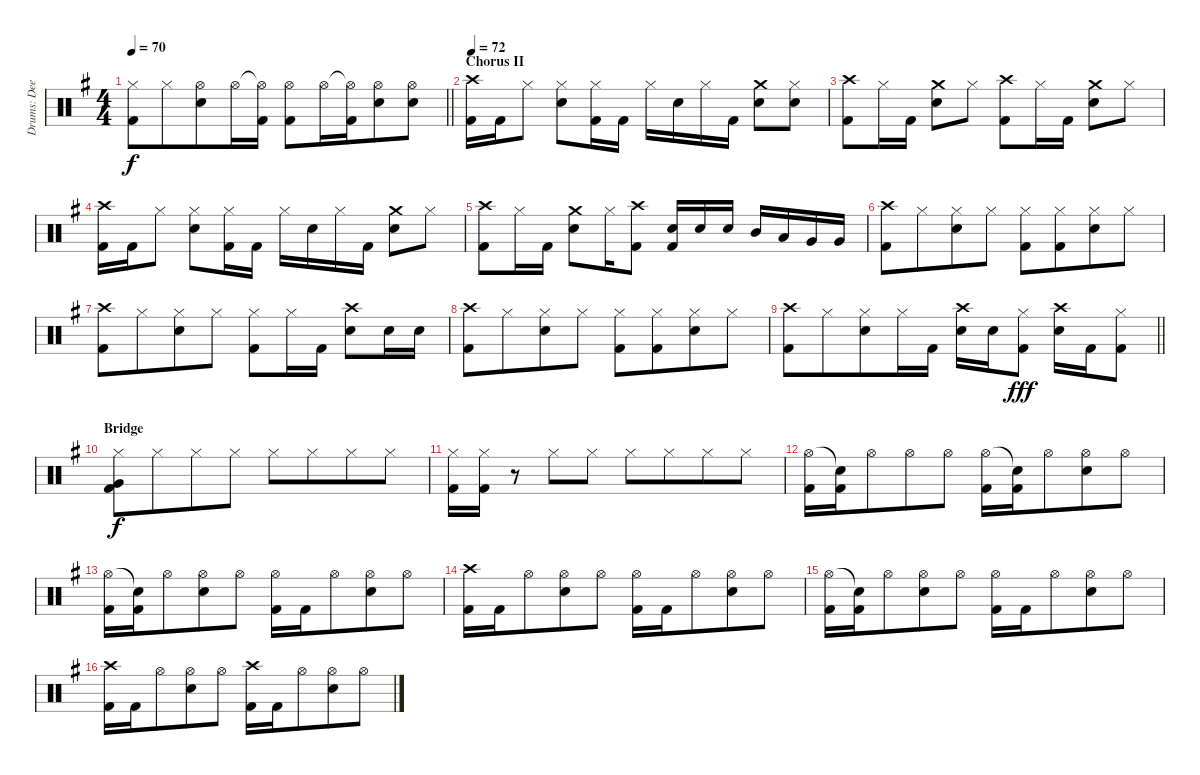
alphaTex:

\track ("Drums: Deen" "Drums: Dee") {instrument percussion}
\staff {score}
\articulation defaults
\ts (4 4)
\tempo 70
\clef neutral
\barLineRight lightlight
\ks g
("Hi-Hat (closed)" "Kick (hit) 2").8{dy f} "Hi-Hat (closed)".8{beam merge} ("Hi-Hat (open)" "Electric Snare (hit)").8 "Hi-Hat (open)".16 ("Hi-Hat (open)"{t} "Kick (hit) 2").16 ("Hi-Hat (open)" "Kick (hit) 2").8 "Hi-Hat (open)".16 ("Hi-Hat (open)"{t} "Kick (hit) 2").16{beam merge} ("Hi-Hat (open)" "Electric Snare (hit)").8{beam merge} ("Hi-Hat (open)" "Electric Snare (hit)").8 |
\section ("" "Chorus II")
\tempo 72
("Crash high (hit)" "Kick (hit) 2").16 "Kick (hit) 2".16 "Hi-Hat (closed)".8 ("Hi-Hat (closed)" "Electric Snare (hit)").8 ("Hi-Hat (closed)" "Kick (hit) 2").16 "Kick (hit) 2".16 "Hi-Hat (closed)".16 "Electric Snare (hit)".16 "Hi-Hat (closed)".16 "Kick (hit) 2".16 ("Crash medium (hit)" "Electric Snare (hit)").8 ("Hi-Hat (closed)" "Electric Snare (hit)").8 |
("Crash high (hit)" "Kick (hit) 2").8 "Hi-Hat (closed)".16 "Kick (hit) 2".16 ("Crash medium (hit)" "Electric Snare (hit)").8 "Hi-Hat (closed)".8 ("Crash high (hit)" "Kick (hit) 2").8 "Hi-Hat (closed)".16 "Kick (hit) 2".16 ("Crash medium (hit)" "Electric Snare (hit)").8 "Hi-Hat (closed)".8 |
("Crash high (hit)" "Kick (hit) 2").16 "Kick (hit) 2".16 "Hi-Hat (closed)".8 ("Hi-Hat (closed)" "Electric Snare (hit)").8 ("Hi-Hat (closed)" "Kick (hit) 2").16 "Kick (hit) 2".16 "Hi-Hat (closed)".16 "Electric Snare (hit)".16 "Hi-Hat (closed)".16 "Kick (hit) 2".16 ("Crash medium (hit)" "Electric Snare (hit)").8 "Hi-Hat (closed)".8 |
("Crash high (hit)" "Kick (hit) 2").8 "Hi-Hat (closed)".16 "Kick (hit) 2".16 ("Crash medium (hit)" "Electric Snare (hit)").8 "Hi-Hat (closed)".16 ("Crash high (hit)" "Kick (hit) 2").8 ("Electric Snare (hit)" "Kick (hit) 2").16 "Electric Snare (hit)".16 "Electric Snare (hit)".16{beam split} "Mid Tom (hit)".16 "Low Tom (hit)".16 "Very Low Tom (hit)".16 "Very Low Tom (hit)".16 |
("Crash high (hit)" "Kick (hit) 2").8 "Hi-Hat (closed)".8{beam merge} ("Hi-Hat (closed)" "Electric Snare (hit)").8 "Hi-Hat (closed)".8 ("Hi-Hat (closed)" "Kick (hit) 2").8 ("Hi-Hat (closed)" "Kick (hit) 2").8{beam merge} ("Hi-Hat (closed)" "Electric Snare (hit)").8 "Hi-Hat (closed)".8 |
("Crash high (hit)" "Kick (hit) 2").8 "Hi-Hat (closed)".8{beam merge} ("Hi-Hat (closed)" "Electric Snare (hit)").8 "Hi-Hat (closed)".8 ("Hi-Hat (closed)" "Kick (hit) 2").8 "Hi-Hat (closed)".16 "Kick (hit) 2".16 ("Crash high (hit)" "Electric Snare (hit)").8 "Electric Snare (hit)".16 "Electric Snare (hit)".16 |
("Crash high (hit)" "Kick (hit) 2").8 "Hi-Hat (closed)".8{beam merge} ("Hi-Hat (closed)" "Electric Snare (hit)").8 "Hi-Hat (closed)".8 ("Hi-Hat (closed)" "Kick (hit) 2").8 ("Hi-Hat (closed)" "Kick (hit) 2").8{beam merge} ("Hi-Hat (closed)" "Electric Snare (hit)").8 "Hi-Hat (closed)".8 |
\barLineRight lightlight
("Crash high (hit)" "Kick (hit) 2").8 "Hi-Hat (closed)".8{beam merge} ("Hi-Hat (closed)" "Electric Snare (hit)").8 "Hi-Hat (closed)".16 "Kick (hit) 2".16 ("Crash high (hit)" "Electric Snare (hit)").16 "Electric Snare (hit)".16 ("Hi-Hat (closed)" "Kick (hit) 2").8{dy fff} ("Crash high (hit)" "Electric Snare (hit)").16 "Kick (hit) 2".16 ("Hi-Hat (closed)" "Kick (hit) 2").8 |
\section ("" "Bridge")
("Hi-Hat (closed)" "Very Low Tom (hit)" "Kick (hit) 2").8{dy f} "Hi-Hat (closed)".8{beam merge} "Hi-Hat (closed)".8 "Hi-Hat (closed)".8 "Hi-Hat (closed)".8 "Hi-Hat (closed)".8{beam merge} "Hi-Hat (closed)".8 "Hi-Hat (closed)".8 |
("Hi-Hat (closed)" "Kick (hit) 2").16 ("Hi-Hat (closed)" "Kick (hit) 2").16 r.8 "Hi-Hat (closed)".8 "Hi-Hat (closed)".8 "Hi-Hat (closed)".8 "Hi-Hat (closed)".8{beam merge} "Hi-Hat (closed)".8 "Hi-Hat (closed)".8 |
("Hi-Hat (open)" "Kick (hit) 2").16 ("Snare (hit)"{t} "Kick (hit) 2").16 "Hi-Hat (open)".8{beam merge} "Hi-Hat (open)".8 "Hi-Hat (open)".8 ("Hi-Hat (open)" "Kick (hit) 2").16 ("Snare (hit)"{t} "Kick (hit) 2").16 "Hi-Hat (open)".8{beam merge} ("Hi-Hat (open)" "Electric Snare (hit)").8 "Hi-Hat (open)".8 |
("Hi-Hat (open)" "Kick (hit) 2").16 ("Snare (hit)"{t} "Kick (hit) 2").16 "Hi-Hat (open)".8{beam merge} ("Hi-Hat (open)" "Electric Snare (hit)").8 "Hi-Hat (open)".8 ("Hi-Hat (open)" "Kick (hit) 2").16 "Kick (hit) 2".16 "Hi-Hat (open)".8{beam merge} ("Hi-Hat (open)" "Electric Snare (hit)").8 "Hi-Hat (open)".8 |
("Crash high (hit)" "Kick (hit) 2").16 "Kick (hit) 2".16 "Hi-Hat (open)".8{beam merge} ("Hi-Hat (open)" "Electric Snare (hit)").8 "Hi-Hat (open)".8 ("Hi-Hat (open)" "Kick (hit) 2").16 "Kick (hit) 2".16 "Hi-Hat (open)".8{beam merge} ("Hi-Hat (open)" "Electric Snare (hit)").8 "Hi-Hat (open)".8 |
("Hi-Hat (open)" "Kick (hit) 2").16 ("Snare (hit)"{t} "Kick (hit) 2").16 "Hi-Hat (open)".8{beam merge} ("Hi-Hat (open)" "Electric Snare (hit)").8 "Hi-Hat (open)".8 ("Hi-Hat (open)" "Kick (hit) 2").16 "Kick (hit) 2".16 "Hi-Hat (open)".8{beam merge} ("Hi-Hat (open)" "Electric Snare (hit)").8 "Hi-Hat (open)".8 |
("Crash high (hit)" "Kick (hit) 2").16 "Kick (hit) 2".16 "Hi-Hat (open)".8{beam merge} ("Hi-Hat (open)" "Electric Snare (hit)").8 "Hi-Hat (open)".8 ("Crash high (hit)" "Kick (hit) 2").16 "Kick (hit) 2".16 "Hi-Hat (open)".8{beam merge} ("Hi-Hat (open)" "Electric Snare (hit)").8 "Hi-Hat (open)".8
